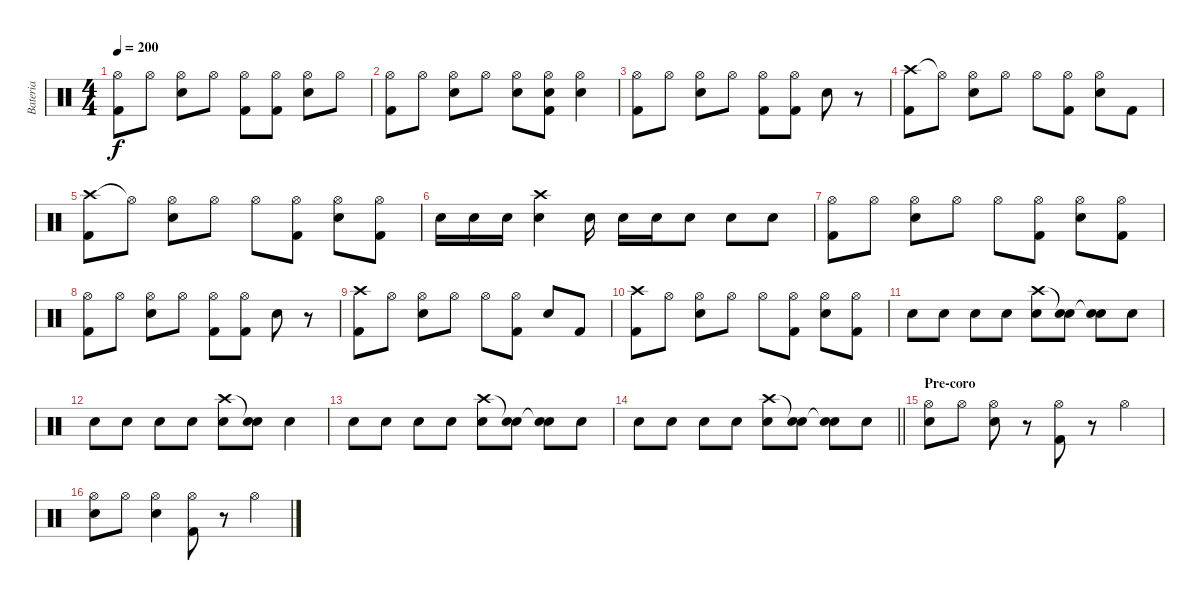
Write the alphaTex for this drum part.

\track ("Bateria" "Bateria") {instrument percussion}
\staff {score}
\articulation defaults
\ts (4 4)
\tempo 200
\clef neutral
\ks c
("Hi-Hat (open)" "Kick (hit) 2").8{dy f} "Hi-Hat (open)".8 ("Hi-Hat (open)" "Snare (hit) 2").8 "Hi-Hat (open)".8 ("Hi-Hat (open)" "Kick (hit) 2").8 ("Hi-Hat (open)" "Kick (hit) 2").8 ("Hi-Hat (open)" "Snare (hit) 2").8 "Hi-Hat (open)".8 |
("Hi-Hat (open)" "Kick (hit) 2").8 "Hi-Hat (open)".8 ("Hi-Hat (open)" "Snare (hit) 2").8 "Hi-Hat (open)".8 ("Hi-Hat (open)" "Snare (hit) 2").8 ("Hi-Hat (open)" "Snare (hit) 2" "Kick (hit) 2").8 ("Hi-Hat (open)" "Snare (hit) 2").4 |
("Hi-Hat (open)" "Kick (hit) 2").8 "Hi-Hat (open)".8 ("Hi-Hat (open)" "Snare (hit) 2").8 "Hi-Hat (open)".8 ("Hi-Hat (open)" "Kick (hit) 2").8 ("Hi-Hat (open)" "Kick (hit) 2").8 "Snare (hit) 2".8 r.8 |
("Crash high (hit)" "Kick (hit) 2").8 "Hi-Hat (open)"{t}.8 ("Hi-Hat (open)" "Snare (hit) 2").8 "Hi-Hat (open)".8 "Hi-Hat (open)".8 ("Hi-Hat (open)" "Kick (hit) 2").8 ("Hi-Hat (open)" "Snare (hit) 2").8 "Kick (hit) 2".8 |
("Crash high (hit)" "Kick (hit) 2").8{volume 13} "Hi-Hat (open)"{t}.8 ("Hi-Hat (open)" "Snare (hit) 2").8 "Hi-Hat (open)".8 "Hi-Hat (open)".8 ("Hi-Hat (open)" "Kick (hit) 2").8 ("Hi-Hat (open)" "Snare (hit) 2").8 ("Hi-Hat (open)" "Kick (hit) 2").8 |
"Snare (hit) 2".16 "Snare (hit) 2".16 "Snare (hit) 2".16 ("Snare (hit) 2" "Crash high (hit)").4 "Snare (hit) 2".16 "Snare (hit) 2".16 "Snare (hit) 2".16 "Snare (hit) 2".8 "Snare (hit) 2".8 "Snare (hit) 2".8 |
("Hi-Hat (open)" "Kick (hit) 2").8 "Hi-Hat (open)".8 ("Hi-Hat (open)" "Snare (hit) 2").8 "Hi-Hat (open)".8 "Hi-Hat (open)".8 ("Hi-Hat (open)" "Kick (hit) 2").8 ("Hi-Hat (open)" "Snare (hit) 2").8 ("Hi-Hat (open)" "Kick (hit) 2").8 |
("Hi-Hat (open)" "Kick (hit) 2").8 "Hi-Hat (open)".8 ("Hi-Hat (open)" "Snare (hit) 2").8 "Hi-Hat (open)".8 ("Hi-Hat (open)" "Kick (hit) 2").8 ("Hi-Hat (open)" "Kick (hit) 2").8 "Snare (hit) 2".8 r.8 |
("Crash high (hit)" "Kick (hit) 2").8 "Hi-Hat (open)".8 ("Hi-Hat (open)" "Snare (hit) 2").8 "Hi-Hat (open)".8 "Hi-Hat (open)".8 ("Hi-Hat (open)" "Kick (hit) 2").8 "Snare (hit) 2".8 "Kick (hit) 2".8 |
("Crash high (hit)" "Kick (hit) 2").8{volume 13} "Hi-Hat (open)".8 ("Hi-Hat (open)" "Snare (hit) 2").8 "Hi-Hat (open)".8 "Hi-Hat (open)".8 ("Hi-Hat (open)" "Kick (hit) 2").8 ("Hi-Hat (open)" "Snare (hit) 2").8 ("Hi-Hat (open)" "Kick (hit) 2").8 |
"Snare (hit) 2".8 "Snare (hit) 2".8 "Snare (hit) 2".8 "Snare (hit) 2".8 ("Crash high (hit)" "Snare (hit) 2").8 ("Snare (hit)"{t} "Snare (hit) 2").8 ("Snare (hit)"{t} "Snare (hit) 2").8 "Snare (hit) 2".8 |
"Snare (hit) 2".8 "Snare (hit) 2".8 "Snare (hit) 2".8 "Snare (hit) 2".8 ("Crash high (hit)" "Snare (hit) 2").8 ("Snare (hit)"{t} "Snare (hit) 2").8 "Snare (hit) 2".4 |
"Snare (hit) 2".8 "Snare (hit) 2".8 "Snare (hit) 2".8 "Snare (hit) 2".8 ("Crash high (hit)" "Snare (hit) 2").8 ("Snare (hit)"{t} "Snare (hit) 2").8 ("Snare (hit)"{t} "Snare (hit) 2").8 "Snare (hit) 2".8 |
\barLineRight lightlight "Snare (hit) 2".8 "Snare (hit) 2".8 "Snare (hit) 2".8 "Snare (hit) 2".8
("Crash high (hit)" "Snare (hit) 2").8 ("Snare (hit)"{t} "Snare (hit) 2").8 ("Snare (hit)"{t} "Snare (hit) 2").8 "Snare (hit) 2".8 |
\section ("" "Pre-coro")
("Hi-Hat (open)" "Snare (hit) 2").8 "Hi-Hat (open)".8 ("Hi-Hat (open)" "Snare (hit) 2").8 r.8 ("Hi-Hat (open)" "Kick (hit) 2").8 r.8 "Hi-Hat (open)".4 |
("Hi-Hat (open)" "Snare (hit) 2").8 "Hi-Hat (open)".8 ("Hi-Hat (open)" "Snare (hit) 2").4 ("Hi-Hat (open)" "Kick (hit) 2").8 r.8 "Hi-Hat (open)".4
